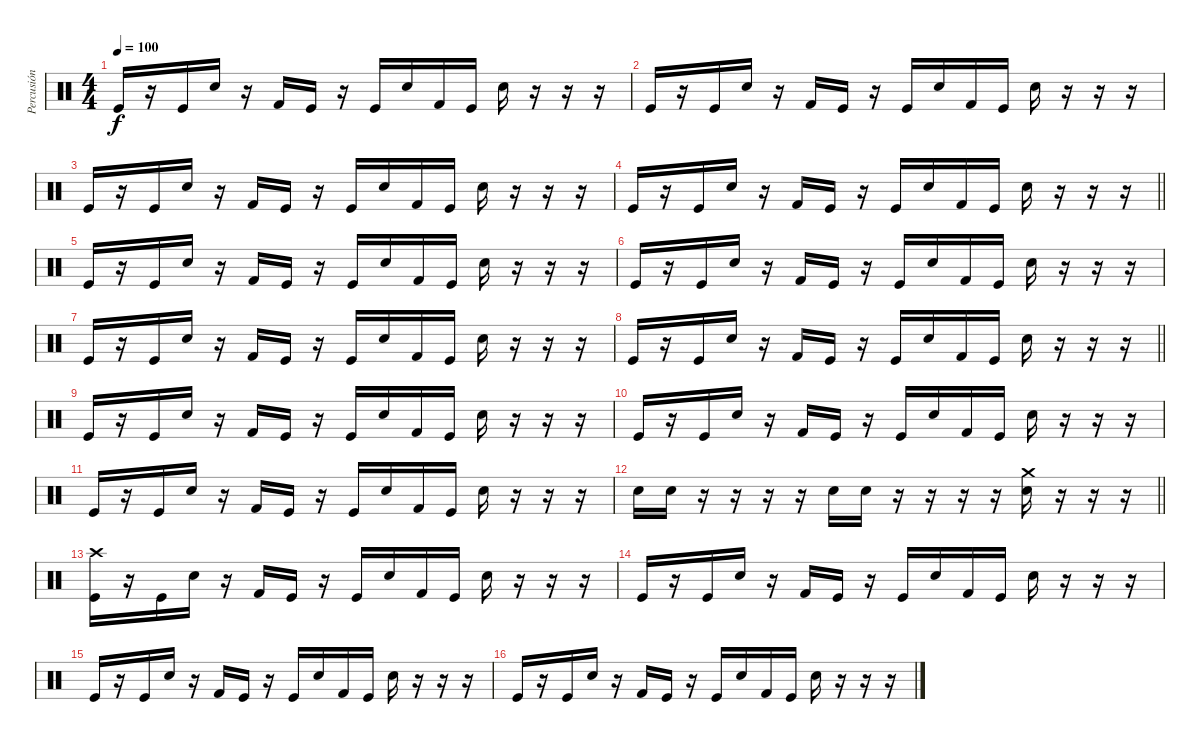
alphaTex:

\track ("Percusión" "Percusión") {instrument percussion}
\staff {score}
\articulation defaults
\ts (4 4)
\tempo 100
\clef neutral
\ks c "Kick (hit)".16{dy f}
r.16 "Kick (hit)".16 "Electric Snare (hit)".16 r.16 "Kick (hit) 2".16 "Kick (hit)".16 r.16 "Kick (hit)".16 "Electric Snare (hit)".16 "Kick (hit) 2".16 "Kick (hit)".16 "Electric Snare (hit)".16 r.16 r.16 r.16 |
"Kick (hit)".16 r.16 "Kick (hit)".16 "Electric Snare (hit)".16 r.16 "Kick (hit) 2".16 "Kick (hit)".16 r.16 "Kick (hit)".16 "Electric Snare (hit)".16 "Kick (hit) 2".16 "Kick (hit)".16 "Electric Snare (hit)".16 r.16 r.16 r.16 |
"Kick (hit)".16 r.16 "Kick (hit)".16 "Electric Snare (hit)".16 r.16 "Kick (hit) 2".16 "Kick (hit)".16 r.16 "Kick (hit)".16 "Electric Snare (hit)".16 "Kick (hit) 2".16 "Kick (hit)".16 "Electric Snare (hit)".16 r.16 r.16 r.16 |
\barLineRight lightlight "Kick (hit)".16
r.16 "Kick (hit)".16 "Electric Snare (hit)".16 r.16 "Kick (hit) 2".16 "Kick (hit)".16 r.16 "Kick (hit)".16 "Electric Snare (hit)".16 "Kick (hit) 2".16 "Kick (hit)".16 "Electric Snare (hit)".16 r.16 r.16 r.16 |
"Kick (hit)".16 r.16 "Kick (hit)".16 "Electric Snare (hit)".16 r.16 "Kick (hit) 2".16 "Kick (hit)".16 r.16 "Kick (hit)".16 "Electric Snare (hit)".16 "Kick (hit) 2".16 "Kick (hit)".16 "Electric Snare (hit)".16 r.16 r.16 r.16 |
"Kick (hit)".16 r.16 "Kick (hit)".16 "Electric Snare (hit)".16 r.16 "Kick (hit) 2".16 "Kick (hit)".16 r.16 "Kick (hit)".16 "Electric Snare (hit)".16 "Kick (hit) 2".16 "Kick (hit)".16 "Electric Snare (hit)".16 r.16 r.16 r.16 |
"Kick (hit)".16 r.16 "Kick (hit)".16 "Electric Snare (hit)".16 r.16 "Kick (hit) 2".16 "Kick (hit)".16 r.16 "Kick (hit)".16 "Electric Snare (hit)".16 "Kick (hit) 2".16 "Kick (hit)".16 "Electric Snare (hit)".16 r.16 r.16 r.16 |
\barLineRight lightlight "Kick (hit)".16
r.16 "Kick (hit)".16 "Electric Snare (hit)".16 r.16 "Kick (hit) 2".16 "Kick (hit)".16 r.16 "Kick (hit)".16 "Electric Snare (hit)".16 "Kick (hit) 2".16 "Kick (hit)".16 "Electric Snare (hit)".16 r.16 r.16 r.16 |
"Kick (hit)".16 r.16 "Kick (hit)".16 "Electric Snare (hit)".16 r.16 "Kick (hit) 2".16 "Kick (hit)".16 r.16 "Kick (hit)".16 "Electric Snare (hit)".16 "Kick (hit) 2".16 "Kick (hit)".16 "Electric Snare (hit)".16 r.16 r.16 r.16 |
"Kick (hit)".16 r.16 "Kick (hit)".16 "Electric Snare (hit)".16 r.16 "Kick (hit) 2".16 "Kick (hit)".16 r.16 "Kick (hit)".16 "Electric Snare (hit)".16 "Kick (hit) 2".16 "Kick (hit)".16 "Electric Snare (hit)".16 r.16 r.16 r.16 |
"Kick (hit)".16 r.16 "Kick (hit)".16 "Electric Snare (hit)".16 r.16 "Kick (hit) 2".16 "Kick (hit)".16 r.16 "Kick (hit)".16 "Electric Snare (hit)".16 "Kick (hit) 2".16 "Kick (hit)".16 "Electric Snare (hit)".16 r.16 r.16 r.16 |
\barLineRight lightlight "Electric Snare (hit)".16 "Electric Snare (hit)".16
r.16 r.16 r.16 r.16 "Electric Snare (hit)".16 "Electric Snare (hit)".16 r.16 r.16 r.16 r.16 ("Crash medium (hit)" "Electric Snare (hit)").16 r.16 r.16 r.16 |
("Crash high (hit)" "Kick (hit)").16 r.16 "Kick (hit)".16 "Electric Snare (hit)".16 r.16 "Kick (hit) 2".16 "Kick (hit)".16 r.16 "Kick (hit)".16 "Electric Snare (hit)".16 "Kick (hit) 2".16 "Kick (hit)".16 "Electric Snare (hit)".16 r.16 r.16 r.16 |
"Kick (hit)".16 r.16 "Kick (hit)".16 "Electric Snare (hit)".16 r.16 "Kick (hit) 2".16 "Kick (hit)".16 r.16 "Kick (hit)".16 "Electric Snare (hit)".16 "Kick (hit) 2".16 "Kick (hit)".16 "Electric Snare (hit)".16 r.16 r.16 r.16 |
"Kick (hit)".16 r.16 "Kick (hit)".16 "Electric Snare (hit)".16 r.16 "Kick (hit) 2".16 "Kick (hit)".16 r.16 "Kick (hit)".16 "Electric Snare (hit)".16 "Kick (hit) 2".16 "Kick (hit)".16 "Electric Snare (hit)".16 r.16 r.16 r.16 |
"Kick (hit)".16 r.16 "Kick (hit)".16 "Electric Snare (hit)".16 r.16 "Kick (hit) 2".16 "Kick (hit)".16 r.16 "Kick (hit)".16 "Electric Snare (hit)".16 "Kick (hit) 2".16 "Kick (hit)".16 "Electric Snare (hit)".16 r.16 r.16 r.16
